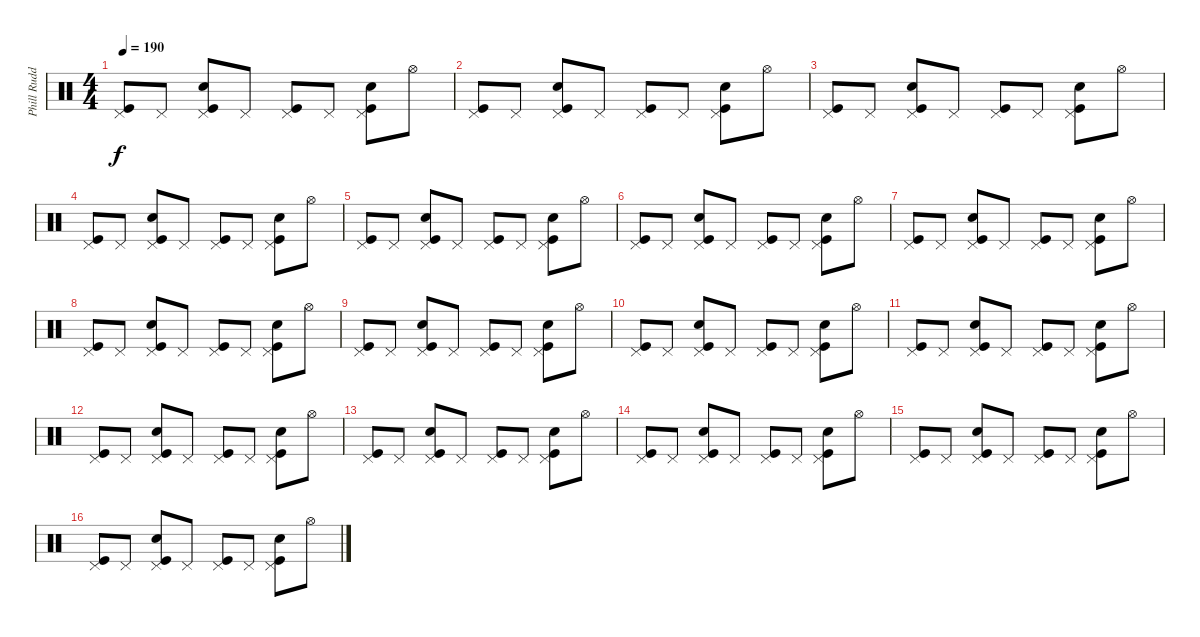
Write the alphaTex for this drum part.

\track ("Phill Rudd (Drums)" "Phill Rudd") {instrument percussion}
\staff {score}
\articulation defaults
\ts (4 4)
\tempo 190
\clef neutral
\ks c
("Pedal Hi-Hat (hit)" "Kick (hit)").8{dy f} "Pedal Hi-Hat (hit)".8 ("Pedal Hi-Hat (hit)" "Snare (hit) 2" "Kick (hit)").8 "Pedal Hi-Hat (hit)".8 ("Pedal Hi-Hat (hit)" "Kick (hit)").8 "Pedal Hi-Hat (hit)".8 ("Pedal Hi-Hat (hit)" "Snare (hit) 2" "Kick (hit)").8 "Hi-Hat (open)".8 |
("Pedal Hi-Hat (hit)" "Kick (hit)").8 "Pedal Hi-Hat (hit)".8 ("Pedal Hi-Hat (hit)" "Snare (hit) 2" "Kick (hit)").8 "Pedal Hi-Hat (hit)".8 ("Pedal Hi-Hat (hit)" "Kick (hit)").8 "Pedal Hi-Hat (hit)".8 ("Pedal Hi-Hat (hit)" "Snare (hit) 2" "Kick (hit)").8 "Hi-Hat (open)".8 |
("Pedal Hi-Hat (hit)" "Kick (hit)").8 "Pedal Hi-Hat (hit)".8 ("Pedal Hi-Hat (hit)" "Snare (hit) 2" "Kick (hit)").8 "Pedal Hi-Hat (hit)".8 ("Pedal Hi-Hat (hit)" "Kick (hit)").8 "Pedal Hi-Hat (hit)".8 ("Pedal Hi-Hat (hit)" "Snare (hit) 2" "Kick (hit)").8 "Hi-Hat (open)".8 |
("Pedal Hi-Hat (hit)" "Kick (hit)").8 "Pedal Hi-Hat (hit)".8 ("Pedal Hi-Hat (hit)" "Snare (hit) 2" "Kick (hit)").8 "Pedal Hi-Hat (hit)".8 ("Pedal Hi-Hat (hit)" "Kick (hit)").8 "Pedal Hi-Hat (hit)".8 ("Pedal Hi-Hat (hit)" "Snare (hit) 2" "Kick (hit)").8 "Hi-Hat (open)".8 |
("Pedal Hi-Hat (hit)" "Kick (hit)").8 "Pedal Hi-Hat (hit)".8 ("Pedal Hi-Hat (hit)" "Snare (hit) 2" "Kick (hit)").8 "Pedal Hi-Hat (hit)".8 ("Pedal Hi-Hat (hit)" "Kick (hit)").8 "Pedal Hi-Hat (hit)".8 ("Pedal Hi-Hat (hit)" "Snare (hit) 2" "Kick (hit)").8 "Hi-Hat (open)".8 |
("Pedal Hi-Hat (hit)" "Kick (hit)").8 "Pedal Hi-Hat (hit)".8 ("Pedal Hi-Hat (hit)" "Snare (hit) 2" "Kick (hit)").8 "Pedal Hi-Hat (hit)".8 ("Pedal Hi-Hat (hit)" "Kick (hit)").8 "Pedal Hi-Hat (hit)".8 ("Pedal Hi-Hat (hit)" "Snare (hit) 2" "Kick (hit)").8 "Hi-Hat (open)".8 |
("Pedal Hi-Hat (hit)" "Kick (hit)").8 "Pedal Hi-Hat (hit)".8 ("Pedal Hi-Hat (hit)" "Snare (hit) 2" "Kick (hit)").8 "Pedal Hi-Hat (hit)".8 ("Pedal Hi-Hat (hit)" "Kick (hit)").8 "Pedal Hi-Hat (hit)".8 ("Pedal Hi-Hat (hit)" "Snare (hit) 2" "Kick (hit)").8 "Hi-Hat (open)".8 |
("Pedal Hi-Hat (hit)" "Kick (hit)").8 "Pedal Hi-Hat (hit)".8 ("Pedal Hi-Hat (hit)" "Snare (hit) 2" "Kick (hit)").8 "Pedal Hi-Hat (hit)".8 ("Pedal Hi-Hat (hit)" "Kick (hit)").8 "Pedal Hi-Hat (hit)".8 ("Pedal Hi-Hat (hit)" "Snare (hit) 2" "Kick (hit)").8 "Hi-Hat (open)".8 |
("Pedal Hi-Hat (hit)" "Kick (hit)").8 "Pedal Hi-Hat (hit)".8 ("Pedal Hi-Hat (hit)" "Snare (hit) 2" "Kick (hit)").8 "Pedal Hi-Hat (hit)".8 ("Pedal Hi-Hat (hit)" "Kick (hit)").8 "Pedal Hi-Hat (hit)".8 ("Pedal Hi-Hat (hit)" "Snare (hit) 2" "Kick (hit)").8 "Hi-Hat (open)".8 |
("Pedal Hi-Hat (hit)" "Kick (hit)").8 "Pedal Hi-Hat (hit)".8 ("Pedal Hi-Hat (hit)" "Snare (hit) 2" "Kick (hit)").8 "Pedal Hi-Hat (hit)".8 ("Pedal Hi-Hat (hit)" "Kick (hit)").8 "Pedal Hi-Hat (hit)".8 ("Pedal Hi-Hat (hit)" "Snare (hit) 2" "Kick (hit)").8 "Hi-Hat (open)".8 |
("Pedal Hi-Hat (hit)" "Kick (hit)").8 "Pedal Hi-Hat (hit)".8 ("Pedal Hi-Hat (hit)" "Snare (hit) 2" "Kick (hit)").8 "Pedal Hi-Hat (hit)".8 ("Pedal Hi-Hat (hit)" "Kick (hit)").8 "Pedal Hi-Hat (hit)".8 ("Pedal Hi-Hat (hit)" "Snare (hit) 2" "Kick (hit)").8 "Hi-Hat (open)".8 |
("Pedal Hi-Hat (hit)" "Kick (hit)").8 "Pedal Hi-Hat (hit)".8 ("Pedal Hi-Hat (hit)" "Snare (hit) 2" "Kick (hit)").8 "Pedal Hi-Hat (hit)".8 ("Pedal Hi-Hat (hit)" "Kick (hit)").8 "Pedal Hi-Hat (hit)".8 ("Pedal Hi-Hat (hit)" "Snare (hit) 2" "Kick (hit)").8 "Hi-Hat (open)".8 |
("Pedal Hi-Hat (hit)" "Kick (hit)").8 "Pedal Hi-Hat (hit)".8 ("Pedal Hi-Hat (hit)" "Snare (hit) 2" "Kick (hit)").8 "Pedal Hi-Hat (hit)".8 ("Pedal Hi-Hat (hit)" "Kick (hit)").8 "Pedal Hi-Hat (hit)".8 ("Pedal Hi-Hat (hit)" "Snare (hit) 2" "Kick (hit)").8 "Hi-Hat (open)".8 |
("Pedal Hi-Hat (hit)" "Kick (hit)").8 "Pedal Hi-Hat (hit)".8 ("Pedal Hi-Hat (hit)" "Snare (hit) 2" "Kick (hit)").8 "Pedal Hi-Hat (hit)".8 ("Pedal Hi-Hat (hit)" "Kick (hit)").8 "Pedal Hi-Hat (hit)".8 ("Pedal Hi-Hat (hit)" "Snare (hit) 2" "Kick (hit)").8 "Hi-Hat (open)".8 |
("Pedal Hi-Hat (hit)" "Kick (hit)").8 "Pedal Hi-Hat (hit)".8 ("Pedal Hi-Hat (hit)" "Snare (hit) 2" "Kick (hit)").8 "Pedal Hi-Hat (hit)".8 ("Pedal Hi-Hat (hit)" "Kick (hit)").8 "Pedal Hi-Hat (hit)".8 ("Pedal Hi-Hat (hit)" "Snare (hit) 2" "Kick (hit)").8 "Hi-Hat (open)".8 |
("Pedal Hi-Hat (hit)" "Kick (hit)").8 "Pedal Hi-Hat (hit)".8 ("Pedal Hi-Hat (hit)" "Snare (hit) 2" "Kick (hit)").8 "Pedal Hi-Hat (hit)".8 ("Pedal Hi-Hat (hit)" "Kick (hit)").8 "Pedal Hi-Hat (hit)".8 ("Pedal Hi-Hat (hit)" "Snare (hit) 2" "Kick (hit)").8 "Hi-Hat (open)".8
